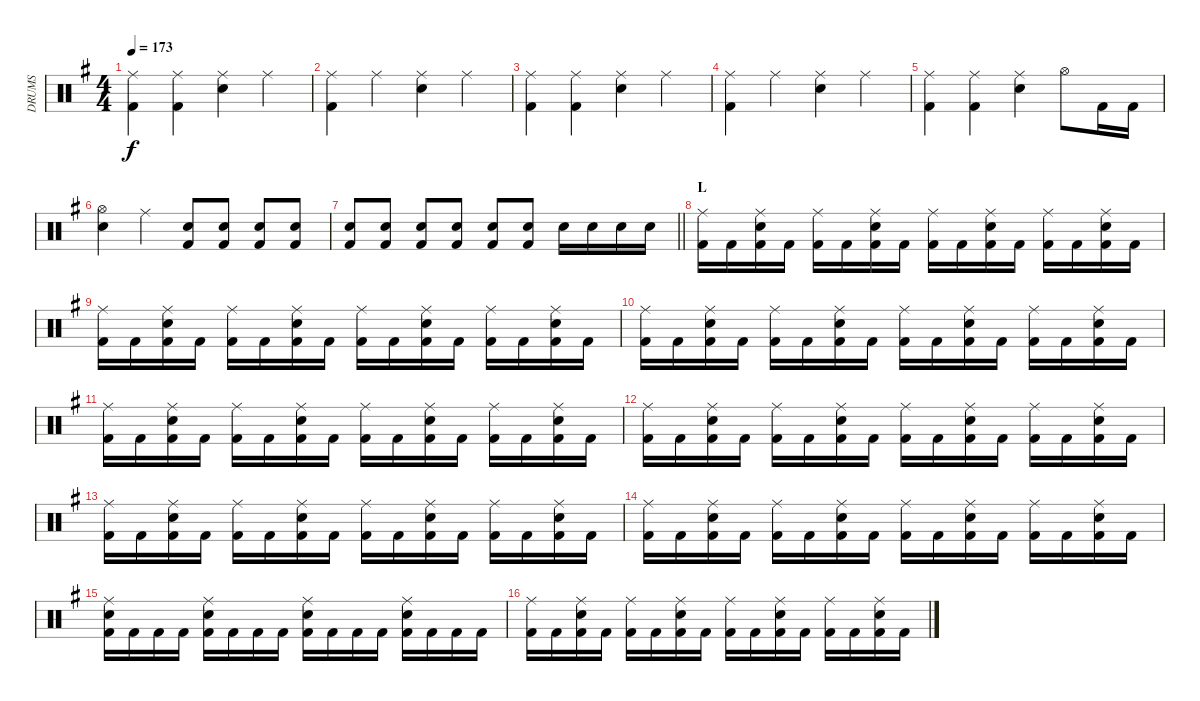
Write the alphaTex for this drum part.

\track ("DRUMS" "DRUMS") {instrument percussion}
\staff {score}
\articulation defaults
\ts (4 4)
\tempo 173
\clef neutral
\ks g
("Ride (middle)" "Kick (hit) 2").4{dy f} ("Ride (middle)" "Kick (hit) 2").4 ("Ride (middle)" "Snare (hit) 2").4 "Ride (middle)".4 |
("Ride (middle)" "Kick (hit) 2").4 "Ride (middle)".4 ("Ride (middle)" "Snare (hit) 2").4 "Ride (middle)".4 |
("Ride (middle)" "Kick (hit) 2").4 ("Ride (middle)" "Kick (hit) 2").4 ("Ride (middle)" "Snare (hit) 2").4 "Ride (middle)".4 |
("Ride (middle)" "Kick (hit) 2").4 "Ride (middle)".4 ("Ride (middle)" "Snare (hit) 2").4 "Ride (middle)".4 |
("Ride (middle)" "Kick (hit) 2").4 ("Ride (middle)" "Kick (hit) 2").4 ("Ride (middle)" "Snare (hit) 2").4 "Hi-Hat (open)".8 "Kick (hit) 2".16 "Kick (hit) 2".16 |
("Hi-Hat (open)" "Snare (hit) 2").4 "Ride (middle)".4 ("Snare (hit) 2" "Kick (hit) 2").8 ("Snare (hit) 2" "Kick (hit) 2").8 ("Snare (hit) 2" "Kick (hit) 2").8 ("Snare (hit) 2" "Kick (hit) 2").8 |
\barLineRight lightlight
("Snare (hit) 2" "Kick (hit) 2").8 ("Snare (hit) 2" "Kick (hit) 2").8 ("Snare (hit) 2" "Kick (hit) 2").8 ("Snare (hit) 2" "Kick (hit) 2").8 ("Snare (hit) 2" "Kick (hit) 2").8 ("Snare (hit) 2" "Kick (hit) 2").8 "Snare (hit) 2".16 "Snare (hit) 2".16 "Snare (hit) 2".16 "Snare (hit) 2".16 |
\section ("" "L")
("Ride (middle)" "Kick (hit) 2").16 "Kick (hit) 2".16 ("Ride (middle)" "Snare (hit) 2" "Kick (hit) 2").16 "Kick (hit) 2".16 ("Ride (middle)" "Kick (hit) 2").16 "Kick (hit) 2".16 ("Ride (middle)" "Snare (hit) 2" "Kick (hit) 2").16 "Kick (hit) 2".16 ("Ride (middle)" "Kick (hit) 2").16 "Kick (hit) 2".16 ("Ride (middle)" "Snare (hit) 2" "Kick (hit) 2").16 "Kick (hit) 2".16 ("Ride (middle)" "Kick (hit) 2").16 "Kick (hit) 2".16 ("Ride (middle)" "Snare (hit) 2" "Kick (hit) 2").16 "Kick (hit) 2".16 |
("Ride (middle)" "Kick (hit) 2").16 "Kick (hit) 2".16 ("Ride (middle)" "Snare (hit) 2" "Kick (hit) 2").16 "Kick (hit) 2".16 ("Ride (middle)" "Kick (hit) 2").16 "Kick (hit) 2".16 ("Ride (middle)" "Snare (hit) 2" "Kick (hit) 2").16 "Kick (hit) 2".16 ("Ride (middle)" "Kick (hit) 2").16 "Kick (hit) 2".16 ("Ride (middle)" "Snare (hit) 2" "Kick (hit) 2").16 "Kick (hit) 2".16 ("Ride (middle)" "Kick (hit) 2").16 "Kick (hit) 2".16 ("Ride (middle)" "Snare (hit) 2" "Kick (hit) 2").16 "Kick (hit) 2".16 |
("Ride (middle)" "Kick (hit) 2").16 "Kick (hit) 2".16 ("Ride (middle)" "Snare (hit) 2" "Kick (hit) 2").16 "Kick (hit) 2".16 ("Ride (middle)" "Kick (hit) 2").16 "Kick (hit) 2".16 ("Ride (middle)" "Snare (hit) 2" "Kick (hit) 2").16 "Kick (hit) 2".16 ("Ride (middle)" "Kick (hit) 2").16 "Kick (hit) 2".16 ("Ride (middle)" "Snare (hit) 2" "Kick (hit) 2").16 "Kick (hit) 2".16 ("Ride (middle)" "Kick (hit) 2").16 "Kick (hit) 2".16 ("Ride (middle)" "Snare (hit) 2" "Kick (hit) 2").16 "Kick (hit) 2".16 |
("Ride (middle)" "Kick (hit) 2").16 "Kick (hit) 2".16 ("Ride (middle)" "Snare (hit) 2" "Kick (hit) 2").16 "Kick (hit) 2".16 ("Ride (middle)" "Kick (hit) 2").16 "Kick (hit) 2".16 ("Ride (middle)" "Snare (hit) 2" "Kick (hit) 2").16 "Kick (hit) 2".16 ("Ride (middle)" "Kick (hit) 2").16 "Kick (hit) 2".16 ("Ride (middle)" "Snare (hit) 2" "Kick (hit) 2").16 "Kick (hit) 2".16 ("Ride (middle)" "Kick (hit) 2").16 "Kick (hit) 2".16 ("Ride (middle)" "Snare (hit) 2" "Kick (hit) 2").16 "Kick (hit) 2".16 |
("Ride (middle)" "Kick (hit) 2").16 "Kick (hit) 2".16 ("Ride (middle)" "Snare (hit) 2" "Kick (hit) 2").16 "Kick (hit) 2".16 ("Ride (middle)" "Kick (hit) 2").16 "Kick (hit) 2".16 ("Ride (middle)" "Snare (hit) 2" "Kick (hit) 2").16 "Kick (hit) 2".16 ("Ride (middle)" "Kick (hit) 2").16 "Kick (hit) 2".16 ("Ride (middle)" "Snare (hit) 2" "Kick (hit) 2").16 "Kick (hit) 2".16 ("Ride (middle)" "Kick (hit) 2").16 "Kick (hit) 2".16 ("Ride (middle)" "Snare (hit) 2" "Kick (hit) 2").16 "Kick (hit) 2".16 |
("Ride (middle)" "Kick (hit) 2").16 "Kick (hit) 2".16 ("Ride (middle)" "Snare (hit) 2" "Kick (hit) 2").16 "Kick (hit) 2".16 ("Ride (middle)" "Kick (hit) 2").16 "Kick (hit) 2".16 ("Ride (middle)" "Snare (hit) 2" "Kick (hit) 2").16 "Kick (hit) 2".16 ("Ride (middle)" "Kick (hit) 2").16 "Kick (hit) 2".16 ("Ride (middle)" "Snare (hit) 2" "Kick (hit) 2").16 "Kick (hit) 2".16 ("Ride (middle)" "Kick (hit) 2").16 "Kick (hit) 2".16 ("Ride (middle)" "Snare (hit) 2" "Kick (hit) 2").16 "Kick (hit) 2".16 |
("Ride (middle)" "Kick (hit) 2").16 "Kick (hit) 2".16 ("Ride (middle)" "Snare (hit) 2" "Kick (hit) 2").16 "Kick (hit) 2".16 ("Ride (middle)" "Kick (hit) 2").16 "Kick (hit) 2".16 ("Ride (middle)" "Snare (hit) 2" "Kick (hit) 2").16 "Kick (hit) 2".16 ("Ride (middle)" "Kick (hit) 2").16 "Kick (hit) 2".16 ("Ride (middle)" "Snare (hit) 2" "Kick (hit) 2").16 "Kick (hit) 2".16 ("Ride (middle)" "Kick (hit) 2").16 "Kick (hit) 2".16 ("Ride (middle)" "Snare (hit) 2" "Kick (hit) 2").16 "Kick (hit) 2".16 |
("Ride (middle)" "Snare (hit) 2" "Kick (hit) 2").16 "Kick (hit) 2".16 "Kick (hit) 2".16 "Kick (hit) 2".16 ("Ride (middle)" "Snare (hit) 2" "Kick (hit) 2").16 "Kick (hit) 2".16 "Kick (hit) 2".16 "Kick (hit) 2".16 ("Ride (middle)" "Snare (hit) 2" "Kick (hit) 2").16 "Kick (hit) 2".16 "Kick (hit) 2".16 "Kick (hit) 2".16 ("Ride (middle)" "Snare (hit) 2" "Kick (hit) 2").16 "Kick (hit) 2".16 "Kick (hit) 2".16 "Kick (hit) 2".16 |
("Ride (middle)" "Kick (hit) 2").16 "Kick (hit) 2".16 ("Ride (middle)" "Snare (hit) 2" "Kick (hit) 2").16 "Kick (hit) 2".16 ("Ride (middle)" "Kick (hit) 2").16 "Kick (hit) 2".16 ("Ride (middle)" "Snare (hit) 2" "Kick (hit) 2").16 "Kick (hit) 2".16 ("Ride (middle)" "Kick (hit) 2").16 "Kick (hit) 2".16 ("Ride (middle)" "Snare (hit) 2" "Kick (hit) 2").16 "Kick (hit) 2".16 ("Ride (middle)" "Kick (hit) 2").16 "Kick (hit) 2".16 ("Ride (middle)" "Snare (hit) 2" "Kick (hit) 2").16 "Kick (hit) 2".16
